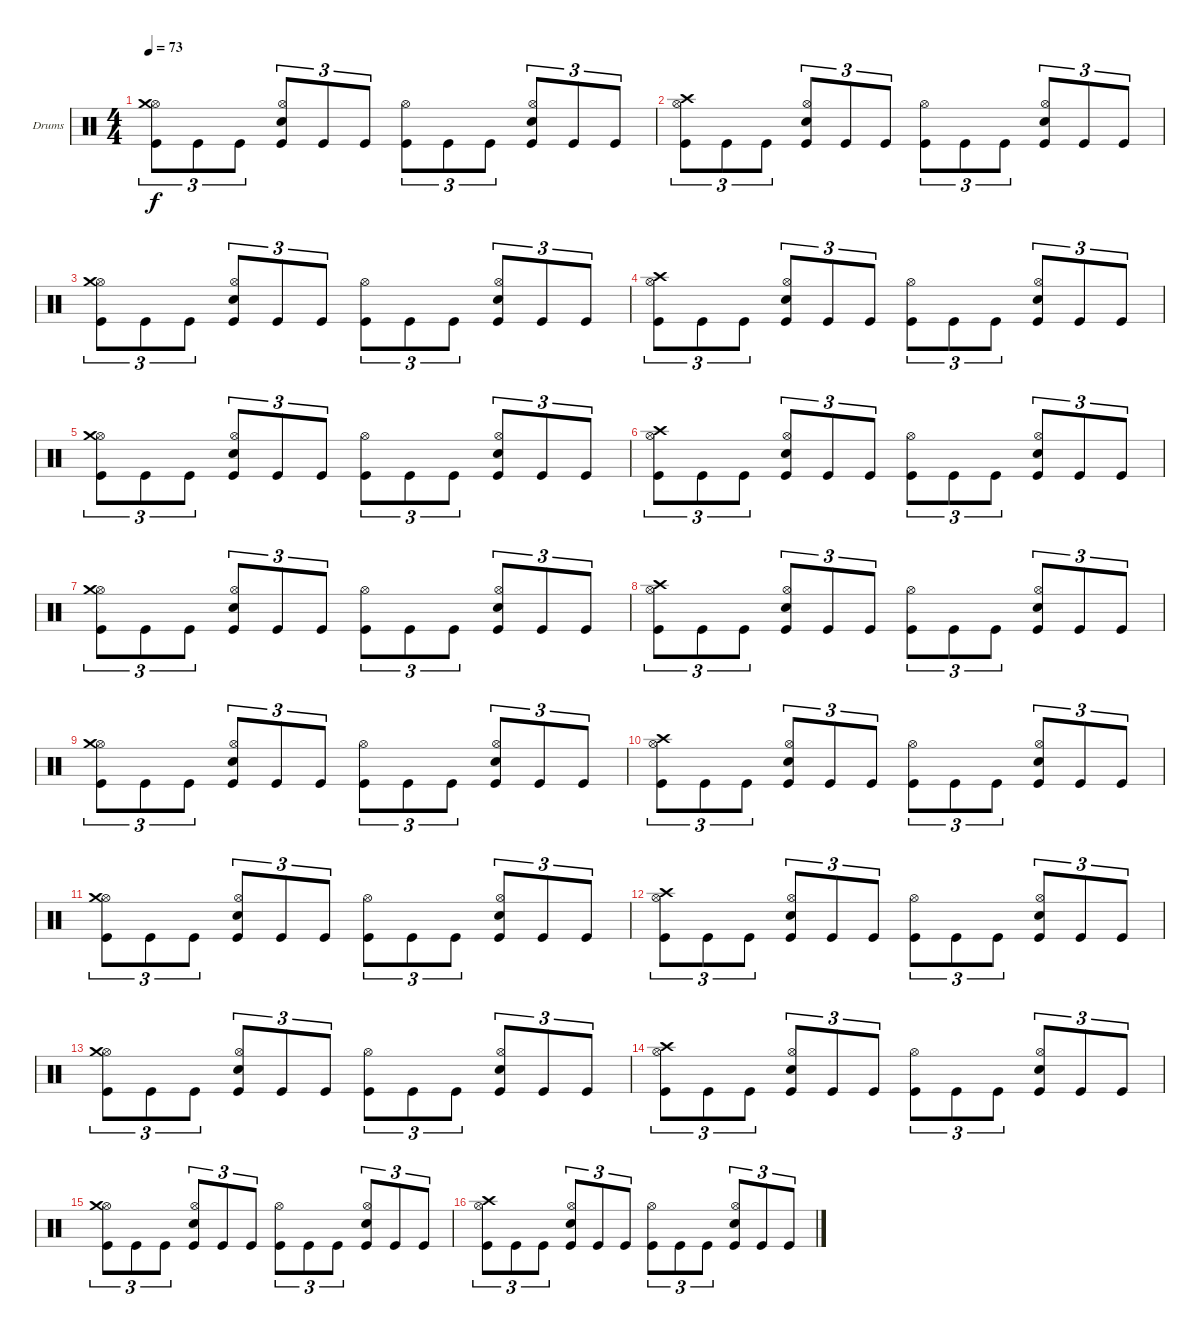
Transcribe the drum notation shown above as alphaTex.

\bracketExtendMode groupsimilarinstruments
\firstSystemTrackNameOrientation horizontal
\otherSystemsTrackNameOrientation horizontal
\track ("Drumkit" "Drums") {instrument percussion}
\staff {score}
\articulation defaults
\ts (4 4)
\tempo 73
\clef neutral
\ks c
("Kick (hit)" "Hi-Hat (open)" "Crash medium (hit)").8{tu (3 2) dy f} "Kick (hit)".8{tu (3 2)} "Kick (hit)".8{tu (3 2)} ("Kick (hit)" "Snare (hit) 2" "Hi-Hat (open)").8{tu (3 2)} "Kick (hit)".8{tu (3 2)} "Kick (hit)".8{tu (3 2)} ("Kick (hit)" "Hi-Hat (open)").8{tu (3 2)} "Kick (hit)".8{tu (3 2)} "Kick (hit)".8{tu (3 2)} ("Kick (hit)" "Snare (hit) 2" "Hi-Hat (open)").8{tu (3 2)} "Kick (hit)".8{tu (3 2)} "Kick (hit)".8{tu (3 2)} |
("Kick (hit)" "Hi-Hat (open)" "Crash high (hit)").8{tu (3 2)} "Kick (hit)".8{tu (3 2)} "Kick (hit)".8{tu (3 2)} ("Kick (hit)" "Snare (hit) 2" "Hi-Hat (open)").8{tu (3 2)} "Kick (hit)".8{tu (3 2)} "Kick (hit)".8{tu (3 2)} ("Kick (hit)" "Hi-Hat (open)").8{tu (3 2)} "Kick (hit)".8{tu (3 2)} "Kick (hit)".8{tu (3 2)} ("Kick (hit)" "Snare (hit) 2" "Hi-Hat (open)").8{tu (3 2)} "Kick (hit)".8{tu (3 2)} "Kick (hit)".8{tu (3 2)} |
("Kick (hit)" "Hi-Hat (open)" "Crash medium (hit)").8{tu (3 2)} "Kick (hit)".8{tu (3 2)} "Kick (hit)".8{tu (3 2)} ("Kick (hit)" "Snare (hit) 2" "Hi-Hat (open)").8{tu (3 2)} "Kick (hit)".8{tu (3 2)} "Kick (hit)".8{tu (3 2)} ("Kick (hit)" "Hi-Hat (open)").8{tu (3 2)} "Kick (hit)".8{tu (3 2)} "Kick (hit)".8{tu (3 2)} ("Kick (hit)" "Snare (hit) 2" "Hi-Hat (open)").8{tu (3 2)} "Kick (hit)".8{tu (3 2)} "Kick (hit)".8{tu (3 2)} |
("Kick (hit)" "Hi-Hat (open)" "Crash high (hit)").8{tu (3 2)} "Kick (hit)".8{tu (3 2)} "Kick (hit)".8{tu (3 2)} ("Kick (hit)" "Snare (hit) 2" "Hi-Hat (open)").8{tu (3 2)} "Kick (hit)".8{tu (3 2)} "Kick (hit)".8{tu (3 2)} ("Kick (hit)" "Hi-Hat (open)").8{tu (3 2)} "Kick (hit)".8{tu (3 2)} "Kick (hit)".8{tu (3 2)} ("Kick (hit)" "Snare (hit) 2" "Hi-Hat (open)").8{tu (3 2)} "Kick (hit)".8{tu (3 2)} "Kick (hit)".8{tu (3 2)} |
("Kick (hit)" "Hi-Hat (open)" "Crash medium (hit)").8{tu (3 2)} "Kick (hit)".8{tu (3 2)} "Kick (hit)".8{tu (3 2)} ("Kick (hit)" "Snare (hit) 2" "Hi-Hat (open)").8{tu (3 2)} "Kick (hit)".8{tu (3 2)} "Kick (hit)".8{tu (3 2)} ("Kick (hit)" "Hi-Hat (open)").8{tu (3 2)} "Kick (hit)".8{tu (3 2)} "Kick (hit)".8{tu (3 2)} ("Kick (hit)" "Snare (hit) 2" "Hi-Hat (open)").8{tu (3 2)} "Kick (hit)".8{tu (3 2)} "Kick (hit)".8{tu (3 2)} |
("Kick (hit)" "Hi-Hat (open)" "Crash high (hit)").8{tu (3 2)} "Kick (hit)".8{tu (3 2)} "Kick (hit)".8{tu (3 2)} ("Kick (hit)" "Snare (hit) 2" "Hi-Hat (open)").8{tu (3 2)} "Kick (hit)".8{tu (3 2)} "Kick (hit)".8{tu (3 2)} ("Kick (hit)" "Hi-Hat (open)").8{tu (3 2)} "Kick (hit)".8{tu (3 2)} "Kick (hit)".8{tu (3 2)} ("Kick (hit)" "Snare (hit) 2" "Hi-Hat (open)").8{tu (3 2)} "Kick (hit)".8{tu (3 2)} "Kick (hit)".8{tu (3 2)} |
("Kick (hit)" "Hi-Hat (open)" "Crash medium (hit)").8{tu (3 2)} "Kick (hit)".8{tu (3 2)} "Kick (hit)".8{tu (3 2)} ("Kick (hit)" "Snare (hit) 2" "Hi-Hat (open)").8{tu (3 2)} "Kick (hit)".8{tu (3 2)} "Kick (hit)".8{tu (3 2)} ("Kick (hit)" "Hi-Hat (open)").8{tu (3 2)} "Kick (hit)".8{tu (3 2)} "Kick (hit)".8{tu (3 2)} ("Kick (hit)" "Snare (hit) 2" "Hi-Hat (open)").8{tu (3 2)} "Kick (hit)".8{tu (3 2)} "Kick (hit)".8{tu (3 2)} |
("Kick (hit)" "Hi-Hat (open)" "Crash high (hit)").8{tu (3 2)} "Kick (hit)".8{tu (3 2)} "Kick (hit)".8{tu (3 2)} ("Kick (hit)" "Snare (hit) 2" "Hi-Hat (open)").8{tu (3 2)} "Kick (hit)".8{tu (3 2)} "Kick (hit)".8{tu (3 2)} ("Kick (hit)" "Hi-Hat (open)").8{tu (3 2)} "Kick (hit)".8{tu (3 2)} "Kick (hit)".8{tu (3 2)} ("Kick (hit)" "Snare (hit) 2" "Hi-Hat (open)").8{tu (3 2)} "Kick (hit)".8{tu (3 2)} "Kick (hit)".8{tu (3 2)} |
("Kick (hit)" "Hi-Hat (open)" "Crash medium (hit)").8{tu (3 2)} "Kick (hit)".8{tu (3 2)} "Kick (hit)".8{tu (3 2)} ("Kick (hit)" "Snare (hit) 2" "Hi-Hat (open)").8{tu (3 2)} "Kick (hit)".8{tu (3 2)} "Kick (hit)".8{tu (3 2)} ("Kick (hit)" "Hi-Hat (open)").8{tu (3 2)} "Kick (hit)".8{tu (3 2)} "Kick (hit)".8{tu (3 2)} ("Kick (hit)" "Snare (hit) 2" "Hi-Hat (open)").8{tu (3 2)} "Kick (hit)".8{tu (3 2)} "Kick (hit)".8{tu (3 2)} |
("Kick (hit)" "Hi-Hat (open)" "Crash high (hit)").8{tu (3 2)} "Kick (hit)".8{tu (3 2)} "Kick (hit)".8{tu (3 2)} ("Kick (hit)" "Snare (hit) 2" "Hi-Hat (open)").8{tu (3 2)} "Kick (hit)".8{tu (3 2)} "Kick (hit)".8{tu (3 2)} ("Kick (hit)" "Hi-Hat (open)").8{tu (3 2)} "Kick (hit)".8{tu (3 2)} "Kick (hit)".8{tu (3 2)} ("Kick (hit)" "Snare (hit) 2" "Hi-Hat (open)").8{tu (3 2)} "Kick (hit)".8{tu (3 2)} "Kick (hit)".8{tu (3 2)} |
("Kick (hit)" "Hi-Hat (open)" "Crash medium (hit)").8{tu (3 2)} "Kick (hit)".8{tu (3 2)} "Kick (hit)".8{tu (3 2)} ("Kick (hit)" "Snare (hit) 2" "Hi-Hat (open)").8{tu (3 2)} "Kick (hit)".8{tu (3 2)} "Kick (hit)".8{tu (3 2)} ("Kick (hit)" "Hi-Hat (open)").8{tu (3 2)} "Kick (hit)".8{tu (3 2)} "Kick (hit)".8{tu (3 2)} ("Kick (hit)" "Snare (hit) 2" "Hi-Hat (open)").8{tu (3 2)} "Kick (hit)".8{tu (3 2)} "Kick (hit)".8{tu (3 2)} |
("Kick (hit)" "Hi-Hat (open)" "Crash high (hit)").8{tu (3 2)} "Kick (hit)".8{tu (3 2)} "Kick (hit)".8{tu (3 2)} ("Kick (hit)" "Snare (hit) 2" "Hi-Hat (open)").8{tu (3 2)} "Kick (hit)".8{tu (3 2)} "Kick (hit)".8{tu (3 2)} ("Kick (hit)" "Hi-Hat (open)").8{tu (3 2)} "Kick (hit)".8{tu (3 2)} "Kick (hit)".8{tu (3 2)} ("Kick (hit)" "Snare (hit) 2" "Hi-Hat (open)").8{tu (3 2)} "Kick (hit)".8{tu (3 2)} "Kick (hit)".8{tu (3 2)} |
("Kick (hit)" "Hi-Hat (open)" "Crash medium (hit)").8{tu (3 2)} "Kick (hit)".8{tu (3 2)} "Kick (hit)".8{tu (3 2)} ("Kick (hit)" "Snare (hit) 2" "Hi-Hat (open)").8{tu (3 2)} "Kick (hit)".8{tu (3 2)} "Kick (hit)".8{tu (3 2)} ("Kick (hit)" "Hi-Hat (open)").8{tu (3 2)} "Kick (hit)".8{tu (3 2)} "Kick (hit)".8{tu (3 2)} ("Kick (hit)" "Snare (hit) 2" "Hi-Hat (open)").8{tu (3 2)} "Kick (hit)".8{tu (3 2)} "Kick (hit)".8{tu (3 2)} |
("Kick (hit)" "Hi-Hat (open)" "Crash high (hit)").8{tu (3 2)} "Kick (hit)".8{tu (3 2)} "Kick (hit)".8{tu (3 2)} ("Kick (hit)" "Snare (hit) 2" "Hi-Hat (open)").8{tu (3 2)} "Kick (hit)".8{tu (3 2)} "Kick (hit)".8{tu (3 2)} ("Kick (hit)" "Hi-Hat (open)").8{tu (3 2)} "Kick (hit)".8{tu (3 2)} "Kick (hit)".8{tu (3 2)} ("Kick (hit)" "Snare (hit) 2" "Hi-Hat (open)").8{tu (3 2)} "Kick (hit)".8{tu (3 2)} "Kick (hit)".8{tu (3 2)} |
("Kick (hit)" "Hi-Hat (open)" "Crash medium (hit)").8{tu (3 2)} "Kick (hit)".8{tu (3 2)} "Kick (hit)".8{tu (3 2)} ("Kick (hit)" "Snare (hit) 2" "Hi-Hat (open)").8{tu (3 2)} "Kick (hit)".8{tu (3 2)} "Kick (hit)".8{tu (3 2)} ("Kick (hit)" "Hi-Hat (open)").8{tu (3 2)} "Kick (hit)".8{tu (3 2)} "Kick (hit)".8{tu (3 2)} ("Kick (hit)" "Snare (hit) 2" "Hi-Hat (open)").8{tu (3 2)} "Kick (hit)".8{tu (3 2)} "Kick (hit)".8{tu (3 2)} |
("Kick (hit)" "Hi-Hat (open)" "Crash high (hit)").8{tu (3 2)} "Kick (hit)".8{tu (3 2)} "Kick (hit)".8{tu (3 2)} ("Kick (hit)" "Snare (hit) 2" "Hi-Hat (open)").8{tu (3 2)} "Kick (hit)".8{tu (3 2)} "Kick (hit)".8{tu (3 2)} ("Kick (hit)" "Hi-Hat (open)").8{tu (3 2)} "Kick (hit)".8{tu (3 2)} "Kick (hit)".8{tu (3 2)} ("Kick (hit)" "Snare (hit) 2" "Hi-Hat (open)").8{tu (3 2)} "Kick (hit)".8{tu (3 2)} "Kick (hit)".8{tu (3 2)}
